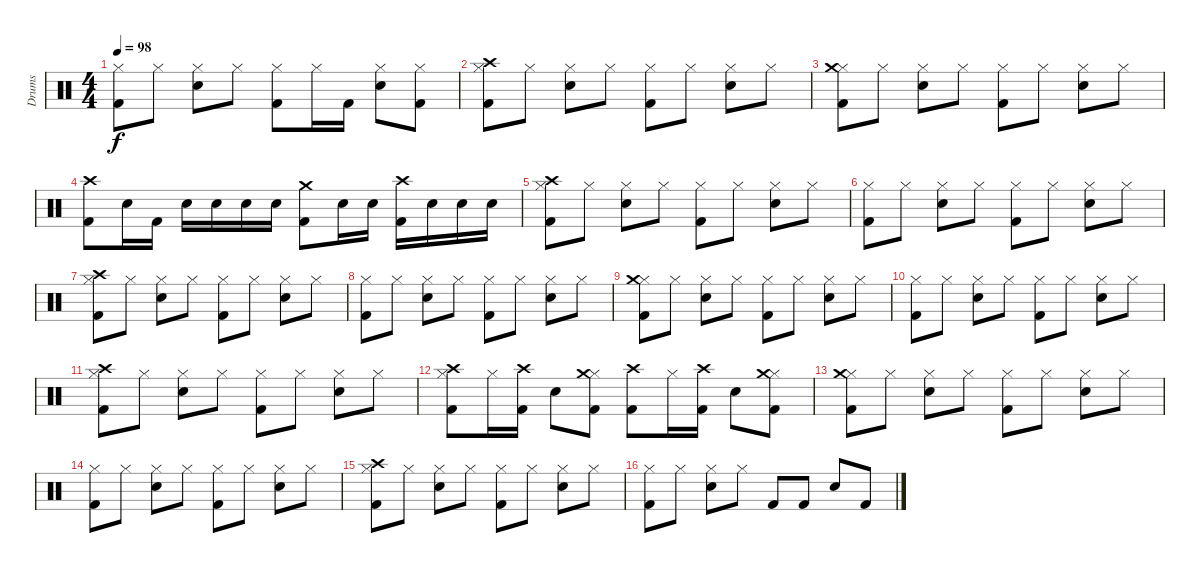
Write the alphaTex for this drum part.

\track ("Drums" "Drums") {instrument percussion}
\staff {score}
\articulation defaults
\ts (4 4)
\tempo 98
\clef neutral
\ks c
("Hi-Hat (closed)" "Kick (hit) 2").8{dy f} "Hi-Hat (closed)".8 ("Hi-Hat (closed)" "Snare (hit) 2").8 "Hi-Hat (closed)".8 ("Hi-Hat (closed)" "Kick (hit) 2").8 "Hi-Hat (closed)".16 "Kick (hit) 2".16 ("Hi-Hat (closed)" "Snare (hit) 2").8 ("Hi-Hat (closed)" "Kick (hit) 2").8 |
("Hi-Hat (closed)" "Kick (hit) 2" "Crash high (hit)").8 "Hi-Hat (closed)".8 ("Hi-Hat (closed)" "Snare (hit) 2").8 "Hi-Hat (closed)".8 ("Hi-Hat (closed)" "Kick (hit) 2").8 "Hi-Hat (closed)".8 ("Hi-Hat (closed)" "Snare (hit) 2").8 "Hi-Hat (closed)".8 |
("Hi-Hat (closed)" "Kick (hit) 2" "Crash medium (hit)").8 "Hi-Hat (closed)".8 ("Hi-Hat (closed)" "Snare (hit) 2").8 "Hi-Hat (closed)".8 ("Hi-Hat (closed)" "Kick (hit) 2").8 "Hi-Hat (closed)".8 ("Hi-Hat (closed)" "Snare (hit) 2").8 "Hi-Hat (closed)".8 |
("Kick (hit) 2" "Crash high (hit)").8 "Snare (hit) 2".16 "Kick (hit) 2".16 "Snare (hit) 2".16 "Snare (hit) 2".16 "Snare (hit) 2".16 "Snare (hit) 2".16 ("Kick (hit) 2" "Crash medium (hit)").8 "Snare (hit) 2".16 "Snare (hit) 2".16 ("Kick (hit) 2" "Crash high (hit)").16 "Snare (hit) 2".16 "Snare (hit) 2".16 "Snare (hit) 2".16 |
("Hi-Hat (closed)" "Kick (hit) 2" "Crash high (hit)").8 "Hi-Hat (closed)".8 ("Hi-Hat (closed)" "Snare (hit) 2").8 "Hi-Hat (closed)".8 ("Hi-Hat (closed)" "Kick (hit) 2").8 "Hi-Hat (closed)".8 ("Hi-Hat (closed)" "Snare (hit) 2").8 "Hi-Hat (closed)".8 |
("Hi-Hat (closed)" "Kick (hit) 2").8 "Hi-Hat (closed)".8 ("Hi-Hat (closed)" "Snare (hit) 2").8 "Hi-Hat (closed)".8 ("Hi-Hat (closed)" "Kick (hit) 2").8 "Hi-Hat (closed)".8 ("Hi-Hat (closed)" "Snare (hit) 2").8 "Hi-Hat (closed)".8 |
("Hi-Hat (closed)" "Kick (hit) 2" "Crash high (hit)").8 "Hi-Hat (closed)".8 ("Hi-Hat (closed)" "Snare (hit) 2").8 "Hi-Hat (closed)".8 ("Hi-Hat (closed)" "Kick (hit) 2").8 "Hi-Hat (closed)".8 ("Hi-Hat (closed)" "Snare (hit) 2").8 "Hi-Hat (closed)".8 |
("Hi-Hat (closed)" "Kick (hit) 2").8 "Hi-Hat (closed)".8 ("Hi-Hat (closed)" "Snare (hit) 2").8 "Hi-Hat (closed)".8 ("Hi-Hat (closed)" "Kick (hit) 2").8 "Hi-Hat (closed)".8 ("Hi-Hat (closed)" "Snare (hit) 2").8 "Hi-Hat (closed)".8 |
("Hi-Hat (closed)" "Kick (hit) 2" "Crash medium (hit)").8 "Hi-Hat (closed)".8 ("Hi-Hat (closed)" "Snare (hit) 2").8 "Hi-Hat (closed)".8 ("Hi-Hat (closed)" "Kick (hit) 2").8 "Hi-Hat (closed)".8 ("Hi-Hat (closed)" "Snare (hit) 2").8 "Hi-Hat (closed)".8 |
("Hi-Hat (closed)" "Kick (hit) 2").8 "Hi-Hat (closed)".8 ("Hi-Hat (closed)" "Snare (hit) 2").8 "Hi-Hat (closed)".8 ("Hi-Hat (closed)" "Kick (hit) 2").8 "Hi-Hat (closed)".8 ("Hi-Hat (closed)" "Snare (hit) 2").8 "Hi-Hat (closed)".8 |
("Hi-Hat (closed)" "Kick (hit) 2" "Crash high (hit)").8 "Hi-Hat (closed)".8 ("Hi-Hat (closed)" "Snare (hit) 2").8 "Hi-Hat (closed)".8 ("Hi-Hat (closed)" "Kick (hit) 2").8 "Hi-Hat (closed)".8 ("Hi-Hat (closed)" "Snare (hit) 2").8 "Hi-Hat (closed)".8 |
("Hi-Hat (closed)" "Kick (hit) 2" "Crash high (hit)").8 "Hi-Hat (closed)".16 ("Kick (hit) 2" "Crash high (hit)").16 "Snare (hit) 2".8 ("Hi-Hat (closed)" "Kick (hit) 2" "Crash medium (hit)").8 ("Kick (hit) 2" "Crash high (hit)").8 "Hi-Hat (closed)".16 ("Kick (hit) 2" "Crash high (hit)").16 "Snare (hit) 2".8 ("Hi-Hat (closed)" "Kick (hit) 2" "Crash medium (hit)").8 |
("Hi-Hat (closed)" "Kick (hit) 2" "Crash medium (hit)").8 "Hi-Hat (closed)".8 ("Hi-Hat (closed)" "Snare (hit) 2").8 "Hi-Hat (closed)".8 ("Hi-Hat (closed)" "Kick (hit) 2").8 "Hi-Hat (closed)".8 ("Hi-Hat (closed)" "Snare (hit) 2").8 "Hi-Hat (closed)".8 |
("Hi-Hat (closed)" "Kick (hit) 2").8 "Hi-Hat (closed)".8 ("Hi-Hat (closed)" "Snare (hit) 2").8 "Hi-Hat (closed)".8 ("Hi-Hat (closed)" "Kick (hit) 2").8 "Hi-Hat (closed)".8 ("Hi-Hat (closed)" "Snare (hit) 2").8 "Hi-Hat (closed)".8 |
("Hi-Hat (closed)" "Kick (hit) 2" "Crash high (hit)").8 "Hi-Hat (closed)".8 ("Hi-Hat (closed)" "Snare (hit) 2").8 "Hi-Hat (closed)".8 ("Hi-Hat (closed)" "Kick (hit) 2").8 "Hi-Hat (closed)".8 ("Hi-Hat (closed)" "Snare (hit) 2").8 "Hi-Hat (closed)".8 |
("Hi-Hat (closed)" "Kick (hit) 2").8 "Hi-Hat (closed)".8 ("Hi-Hat (closed)" "Snare (hit) 2").8 "Hi-Hat (closed)".8 "Kick (hit) 2".8 "Kick (hit) 2".8 "Snare (hit) 2".8 "Kick (hit) 2".8
